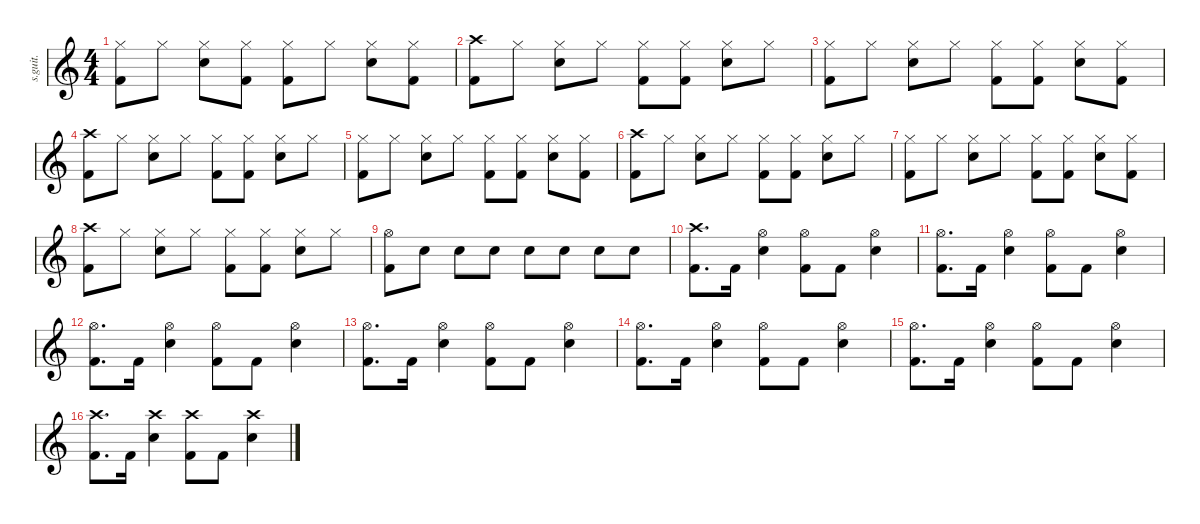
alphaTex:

\defaultSystemsLayout 4
\hideDynamics
\bracketExtendMode nobrackets
\track ("" "s.guit.") {instrument percussion}
\staff {score}
\articulation defaults
\ts (4 4)
\tempo (180 hide)
\clef g2
\ks c
("Kick (hit) 2" "Hi-Hat (closed)").8{dy f} "Hi-Hat (closed)".8 ("Snare (hit) 2" "Hi-Hat (closed)").8 ("Kick (hit) 2" "Hi-Hat (closed)").8 ("Kick (hit) 2" "Hi-Hat (closed)").8 "Hi-Hat (closed)".8 ("Snare (hit) 2" "Hi-Hat (closed)").8 ("Kick (hit) 2" "Hi-Hat (closed)").8 |
("Kick (hit) 2" "Crash high (hit)").8 "Hi-Hat (closed)".8 ("Snare (hit) 2" "Hi-Hat (closed)").8 "Hi-Hat (closed)".8 ("Kick (hit) 2" "Hi-Hat (closed)").8 ("Kick (hit) 2" "Hi-Hat (closed)").8 ("Snare (hit) 2" "Hi-Hat (closed)").8 "Hi-Hat (closed)".8 |
("Kick (hit) 2" "Hi-Hat (closed)").8 "Hi-Hat (closed)".8 ("Snare (hit) 2" "Hi-Hat (closed)").8 "Hi-Hat (closed)".8 ("Kick (hit) 2" "Hi-Hat (closed)").8 ("Kick (hit) 2" "Hi-Hat (closed)").8 ("Snare (hit) 2" "Hi-Hat (closed)").8 ("Kick (hit) 2" "Hi-Hat (closed)").8 |
("Kick (hit) 2" "Crash high (hit)").8 "Hi-Hat (closed)".8 ("Snare (hit) 2" "Hi-Hat (closed)").8 "Hi-Hat (closed)".8 ("Kick (hit) 2" "Hi-Hat (closed)").8 ("Kick (hit) 2" "Hi-Hat (closed)").8 ("Snare (hit) 2" "Hi-Hat (closed)").8 "Hi-Hat (closed)".8 |
("Kick (hit) 2" "Hi-Hat (closed)").8 "Hi-Hat (closed)".8 ("Snare (hit) 2" "Hi-Hat (closed)").8 "Hi-Hat (closed)".8 ("Kick (hit) 2" "Hi-Hat (closed)").8 ("Kick (hit) 2" "Hi-Hat (closed)").8 ("Snare (hit) 2" "Hi-Hat (closed)").8 ("Kick (hit) 2" "Hi-Hat (closed)").8 |
("Kick (hit) 2" "Crash high (hit)").8 "Hi-Hat (closed)".8 ("Snare (hit) 2" "Hi-Hat (closed)").8 "Hi-Hat (closed)".8 ("Kick (hit) 2" "Hi-Hat (closed)").8 ("Kick (hit) 2" "Hi-Hat (closed)").8 ("Snare (hit) 2" "Hi-Hat (closed)").8 "Hi-Hat (closed)".8 |
("Kick (hit) 2" "Hi-Hat (closed)").8 "Hi-Hat (closed)".8 ("Snare (hit) 2" "Hi-Hat (closed)").8 "Hi-Hat (closed)".8 ("Kick (hit) 2" "Hi-Hat (closed)").8 ("Kick (hit) 2" "Hi-Hat (closed)").8 ("Snare (hit) 2" "Hi-Hat (closed)").8 ("Kick (hit) 2" "Hi-Hat (closed)").8 |
("Kick (hit) 2" "Crash high (hit)").8 "Hi-Hat (closed)".8 ("Snare (hit) 2" "Hi-Hat (closed)").8 "Hi-Hat (closed)".8 ("Kick (hit) 2" "Hi-Hat (closed)").8 ("Kick (hit) 2" "Hi-Hat (closed)").8 ("Snare (hit) 2" "Hi-Hat (closed)").8 "Hi-Hat (closed)".8 |
("Kick (hit) 2" "Hi-Hat (open)").8 "Snare (hit) 2".8 "Snare (hit) 2".8 "Snare (hit) 2".8 "Snare (hit) 2".8 "Snare (hit) 2".8 "Snare (hit) 2".8 "Snare (hit) 2".8 |
("Kick (hit) 2" "Crash high (hit)").8{d} "Kick (hit) 2".16 ("Snare (hit) 2" "Hi-Hat (open)").4 ("Kick (hit) 2" "Hi-Hat (open)").8 "Kick (hit) 2".8 ("Snare (hit) 2" "Hi-Hat (open)").4 |
("Kick (hit) 2" "Hi-Hat (open)").8{d} "Kick (hit) 2".16 ("Snare (hit) 2" "Hi-Hat (open)").4 ("Kick (hit) 2" "Hi-Hat (open)").8 "Kick (hit) 2".8 ("Snare (hit) 2" "Hi-Hat (open)").4 |
("Kick (hit) 2" "Hi-Hat (open)").8{d} "Kick (hit) 2".16 ("Snare (hit) 2" "Hi-Hat (open)").4 ("Kick (hit) 2" "Hi-Hat (open)").8 "Kick (hit) 2".8 ("Snare (hit) 2" "Hi-Hat (open)").4 |
("Kick (hit) 2" "Hi-Hat (open)").8{d} "Kick (hit) 2".16 ("Snare (hit) 2" "Hi-Hat (open)").4 ("Kick (hit) 2" "Hi-Hat (open)").8 "Kick (hit) 2".8 ("Snare (hit) 2" "Hi-Hat (open)").4 |
("Kick (hit) 2" "Hi-Hat (open)").8{d} "Kick (hit) 2".16 ("Snare (hit) 2" "Hi-Hat (open)").4 ("Kick (hit) 2" "Hi-Hat (open)").8 "Kick (hit) 2".8 ("Snare (hit) 2" "Hi-Hat (open)").4 |
("Kick (hit) 2" "Hi-Hat (open)").8{d} "Kick (hit) 2".16 ("Snare (hit) 2" "Hi-Hat (open)").4 ("Kick (hit) 2" "Hi-Hat (open)").8 "Kick (hit) 2".8 ("Snare (hit) 2" "Hi-Hat (open)").4 |
("Kick (hit) 2" "Crash high (hit)").8{d} "Kick (hit) 2".16 ("Snare (hit) 2" "Crash high (hit)").4 ("Kick (hit) 2" "Crash high (hit)").8 "Kick (hit) 2".8 ("Snare (hit) 2" "Crash high (hit)").4
